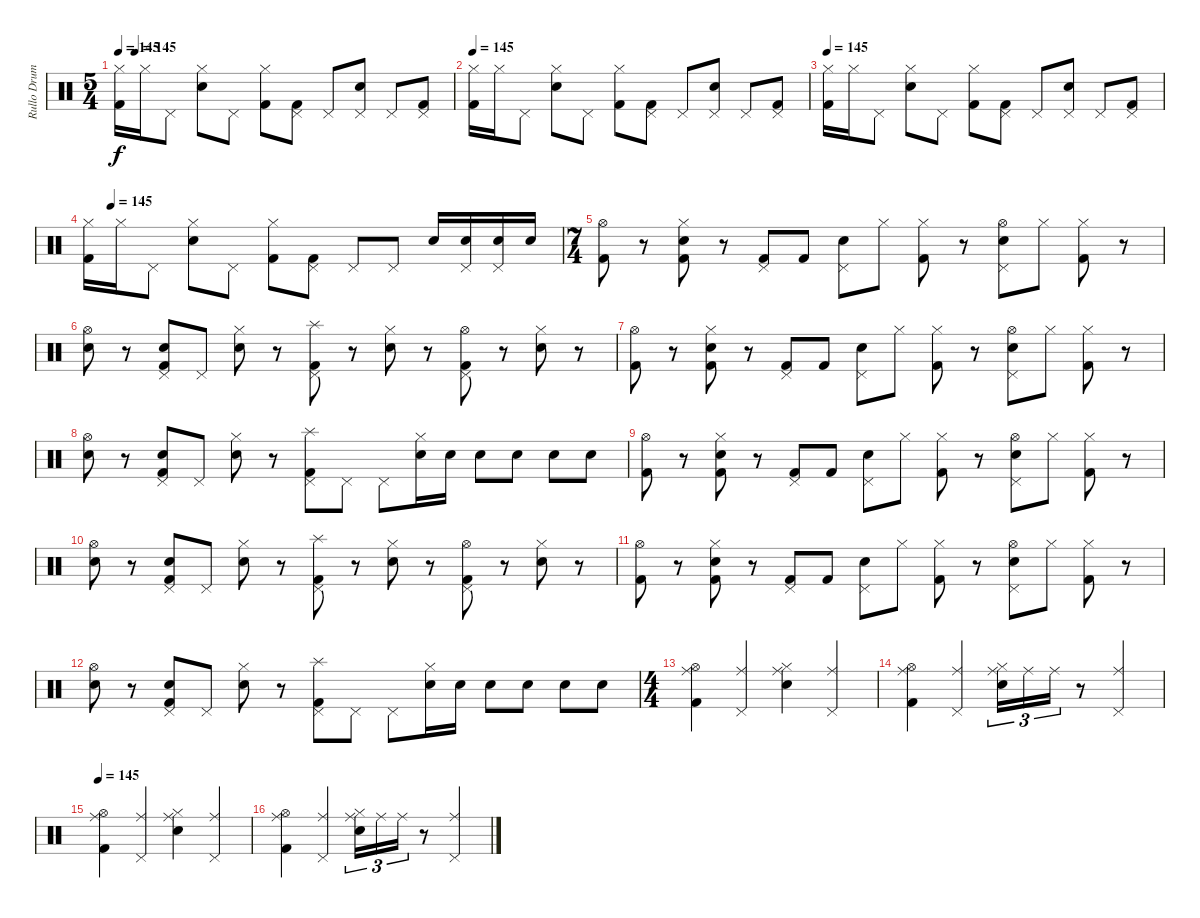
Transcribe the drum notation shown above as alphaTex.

\track ("Rullo Drums" "Rullo Drum") {instrument percussion}
\staff {score}
\articulation defaults
\ts (5 4)
\tempo 145
\tempo (145 0.05)
\clef neutral
\ks c
("Hi-Hat (closed)" "Kick (hit) 2").16{dy f} "Hi-Hat (closed)".16 "Pedal Hi-Hat (hit)".8 ("Hi-Hat (closed)" "Electric Snare (hit)").8 "Pedal Hi-Hat (hit)".8 ("Hi-Hat (closed)" "Kick (hit) 2").8 ("Pedal Hi-Hat (hit)" "Kick (hit) 2").8 "Pedal Hi-Hat (hit)".8 ("Pedal Hi-Hat (hit)" "Electric Snare (hit)").8 "Pedal Hi-Hat (hit)".8 ("Pedal Hi-Hat (hit)" "Kick (hit) 2").8 |
\tempo 145
("Hi-Hat (closed)" "Kick (hit) 2").16 "Hi-Hat (closed)".16 "Pedal Hi-Hat (hit)".8 ("Hi-Hat (closed)" "Electric Snare (hit)").8 "Pedal Hi-Hat (hit)".8 ("Hi-Hat (closed)" "Kick (hit) 2").8 ("Pedal Hi-Hat (hit)" "Kick (hit) 2").8 "Pedal Hi-Hat (hit)".8 ("Pedal Hi-Hat (hit)" "Electric Snare (hit)").8 "Pedal Hi-Hat (hit)".8 ("Pedal Hi-Hat (hit)" "Kick (hit) 2").8 |
\tempo 145
("Hi-Hat (closed)" "Kick (hit) 2").16 "Hi-Hat (closed)".16 "Pedal Hi-Hat (hit)".8 ("Hi-Hat (closed)" "Electric Snare (hit)").8 "Pedal Hi-Hat (hit)".8 ("Hi-Hat (closed)" "Kick (hit) 2").8 ("Pedal Hi-Hat (hit)" "Kick (hit) 2").8 "Pedal Hi-Hat (hit)".8 ("Pedal Hi-Hat (hit)" "Electric Snare (hit)").8 "Pedal Hi-Hat (hit)".8 ("Pedal Hi-Hat (hit)" "Kick (hit) 2").8 |
\tempo (145 0.05)
("Hi-Hat (closed)" "Kick (hit) 2").16 "Hi-Hat (closed)".16 "Pedal Hi-Hat (hit)".8 ("Hi-Hat (closed)" "Electric Snare (hit)").8 "Pedal Hi-Hat (hit)".8 ("Hi-Hat (closed)" "Kick (hit) 2").8 ("Pedal Hi-Hat (hit)" "Kick (hit) 2").8 "Pedal Hi-Hat (hit)".8 "Pedal Hi-Hat (hit)".8 "Snare (hit) 2".16 ("Pedal Hi-Hat (hit)" "Snare (hit) 2").16 ("Pedal Hi-Hat (hit)" "Snare (hit) 2").16 "Snare (hit) 2".16 |
\ts (7 4)
("Kick (hit) 2" "Hi-Hat (open)").8 r.8 ("Snare (hit) 2" "Hi-Hat (closed)" "Kick (hit) 2").8 r.8 ("Kick (hit) 2" "Pedal Hi-Hat (hit)").8 "Kick (hit) 2".8 ("Snare (hit) 2" "Pedal Hi-Hat (hit)").8 "Hi-Hat (closed)".8 ("Kick (hit) 2" "Hi-Hat (closed)").8 r.8 ("Snare (hit) 2" "Pedal Hi-Hat (hit)" "Hi-Hat (open)").8 "Hi-Hat (closed)".8 ("Kick (hit) 2" "Hi-Hat (closed)").8 r.8 |
("Snare (hit) 2" "Hi-Hat (open)").8 r.8 ("Snare (hit) 2" "Kick (hit) 2" "Pedal Hi-Hat (hit)").8 "Pedal Hi-Hat (hit)".8 ("Snare (hit) 2" "Hi-Hat (closed)").8 r.8 ("Kick (hit) 2" "Pedal Hi-Hat (hit)" "Splash (hit)").8 r.8 ("Snare (hit) 2" "Hi-Hat (closed)").8 r.8 ("Kick (hit) 2" "Pedal Hi-Hat (hit)" "Hi-Hat (open)").8 r.8 ("Snare (hit) 2" "Hi-Hat (closed)").8 r.8 |
("Kick (hit) 2" "Hi-Hat (open)").8 r.8 ("Snare (hit) 2" "Hi-Hat (closed)" "Kick (hit) 2").8 r.8 ("Kick (hit) 2" "Pedal Hi-Hat (hit)").8 "Kick (hit) 2".8 ("Snare (hit) 2" "Pedal Hi-Hat (hit)").8 "Hi-Hat (closed)".8 ("Kick (hit) 2" "Hi-Hat (closed)").8 r.8 ("Snare (hit) 2" "Pedal Hi-Hat (hit)" "Hi-Hat (open)").8 "Hi-Hat (closed)".8 ("Kick (hit) 2" "Hi-Hat (closed)").8 r.8 |
("Snare (hit) 2" "Hi-Hat (open)").8 r.8 ("Snare (hit) 2" "Kick (hit) 2" "Pedal Hi-Hat (hit)").8 "Pedal Hi-Hat (hit)".8 ("Snare (hit) 2" "Hi-Hat (closed)").8 r.8 ("Kick (hit) 2" "Pedal Hi-Hat (hit)" "Splash (hit)").8 "Pedal Hi-Hat (hit)".8 "Pedal Hi-Hat (hit)".8 ("Snare (hit) 2" "Hi-Hat (closed)").16 "Snare (hit) 2".16 "Snare (hit) 2".8 "Snare (hit) 2".8 "Snare (hit) 2".8 "Snare (hit) 2".8 |
("Kick (hit) 2" "Hi-Hat (open)").8 r.8 ("Snare (hit) 2" "Hi-Hat (closed)" "Kick (hit) 2").8 r.8 ("Kick (hit) 2" "Pedal Hi-Hat (hit)").8 "Kick (hit) 2".8 ("Snare (hit) 2" "Pedal Hi-Hat (hit)").8 "Hi-Hat (closed)".8 ("Kick (hit) 2" "Hi-Hat (closed)").8 r.8 ("Snare (hit) 2" "Pedal Hi-Hat (hit)" "Hi-Hat (open)").8 "Hi-Hat (closed)".8 ("Kick (hit) 2" "Hi-Hat (closed)").8 r.8 |
("Snare (hit) 2" "Hi-Hat (open)").8 r.8 ("Snare (hit) 2" "Kick (hit) 2" "Pedal Hi-Hat (hit)").8 "Pedal Hi-Hat (hit)".8 ("Snare (hit) 2" "Hi-Hat (closed)").8 r.8 ("Kick (hit) 2" "Pedal Hi-Hat (hit)" "Splash (hit)").8 r.8 ("Snare (hit) 2" "Hi-Hat (closed)").8 r.8 ("Kick (hit) 2" "Pedal Hi-Hat (hit)" "Hi-Hat (open)").8 r.8 ("Snare (hit) 2" "Hi-Hat (closed)").8 r.8 |
("Kick (hit) 2" "Hi-Hat (open)").8 r.8 ("Snare (hit) 2" "Hi-Hat (closed)" "Kick (hit) 2").8 r.8 ("Kick (hit) 2" "Pedal Hi-Hat (hit)").8 "Kick (hit) 2".8 ("Snare (hit) 2" "Pedal Hi-Hat (hit)").8 "Hi-Hat (closed)".8 ("Kick (hit) 2" "Hi-Hat (closed)").8 r.8 ("Snare (hit) 2" "Pedal Hi-Hat (hit)" "Hi-Hat (open)").8 "Hi-Hat (closed)".8 ("Kick (hit) 2" "Hi-Hat (closed)").8 r.8 |
("Snare (hit) 2" "Hi-Hat (open)").8 r.8 ("Snare (hit) 2" "Kick (hit) 2" "Pedal Hi-Hat (hit)").8 "Pedal Hi-Hat (hit)".8 ("Snare (hit) 2" "Hi-Hat (closed)").8 r.8 ("Kick (hit) 2" "Pedal Hi-Hat (hit)" "Splash (hit)").8 "Pedal Hi-Hat (hit)".8 "Pedal Hi-Hat (hit)".8 ("Snare (hit) 2" "Hi-Hat (closed)").16 "Snare (hit) 2".16 "Snare (hit) 2".8 "Snare (hit) 2".8 "Snare (hit) 2".8 "Snare (hit) 2".8 |
\ts (4 4)
("Ride (middle)" "Kick (hit) 2" "Hi-Hat (open)").4 ("Ride (middle)" "Pedal Hi-Hat (hit)").4 ("Ride (middle)" "Electric Snare (hit)" "Hi-Hat (closed)").4 ("Ride (middle)" "Pedal Hi-Hat (hit)").4 |
("Ride (middle)" "Kick (hit) 2" "Hi-Hat (open)").4 ("Ride (middle)" "Pedal Hi-Hat (hit)").4 ("Ride (middle)" "Electric Snare (hit)" "Hi-Hat (closed)").16{tu (3 2)} "Ride (middle)".16{tu (3 2)} "Ride (middle)".16{tu (3 2)} r.8 ("Ride (middle)" "Pedal Hi-Hat (hit)").4 |
\tempo 145
("Ride (middle)" "Kick (hit) 2" "Hi-Hat (open)").4 ("Ride (middle)" "Pedal Hi-Hat (hit)").4 ("Ride (middle)" "Electric Snare (hit)" "Hi-Hat (closed)").4 ("Ride (middle)" "Pedal Hi-Hat (hit)").4 |
("Ride (middle)" "Kick (hit) 2" "Hi-Hat (open)").4 ("Ride (middle)" "Pedal Hi-Hat (hit)").4 ("Ride (middle)" "Electric Snare (hit)" "Hi-Hat (closed)").16{tu (3 2)} "Ride (middle)".16{tu (3 2)} "Ride (middle)".16{tu (3 2)} r.8 ("Ride (middle)" "Pedal Hi-Hat (hit)").4
